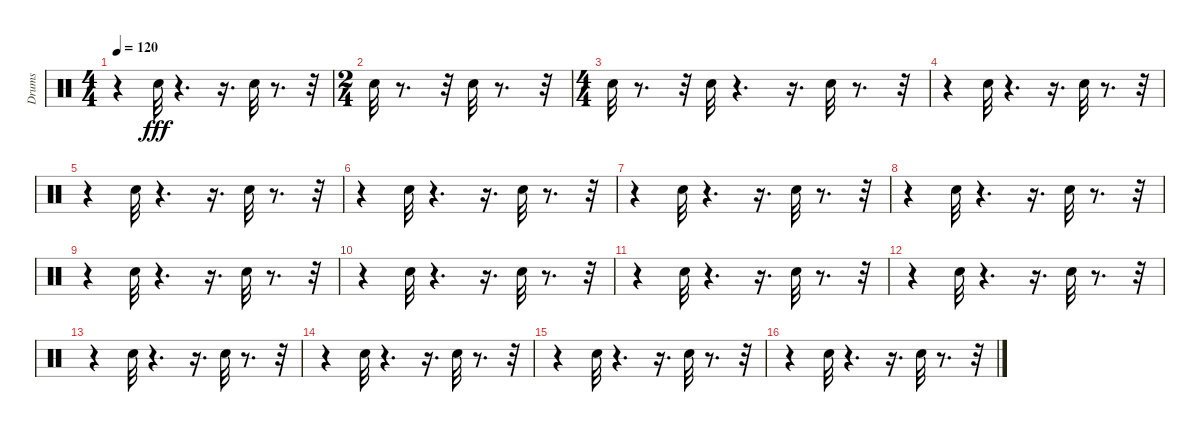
\track ("Drums" "Drums") {instrument percussion}
\staff {score}
\articulation defaults
\ts (4 4)
\tempo 120
\clef neutral
\ks c
r.4{dy fff} "Snare (hit) 2".32 r.4{d} r.16{d} "Snare (hit) 2".32 r.8{d} r.32 |
\ts (2 4)
"Snare (hit) 2".32 r.8{d} r.32 "Snare (hit) 2".32 r.8{d} r.32 |
\ts (4 4)
"Snare (hit) 2".32 r.8{d} r.32 "Snare (hit) 2".32 r.4{d} r.16{d} "Snare (hit) 2".32 r.8{d} r.32 |
r.4 "Snare (hit) 2".32 r.4{d} r.16{d} "Snare (hit) 2".32 r.8{d} r.32 |
r.4 "Snare (hit) 2".32 r.4{d} r.16{d} "Snare (hit) 2".32 r.8{d} r.32 |
r.4 "Snare (hit) 2".32 r.4{d} r.16{d} "Snare (hit) 2".32 r.8{d} r.32 |
r.4 "Snare (hit) 2".32 r.4{d} r.16{d} "Snare (hit) 2".32 r.8{d} r.32 |
r.4 "Snare (hit) 2".32 r.4{d} r.16{d} "Snare (hit) 2".32 r.8{d} r.32 |
r.4 "Snare (hit) 2".32 r.4{d} r.16{d} "Snare (hit) 2".32 r.8{d} r.32 |
r.4 "Snare (hit) 2".32 r.4{d} r.16{d} "Snare (hit) 2".32 r.8{d} r.32 |
r.4 "Snare (hit) 2".32 r.4{d} r.16{d} "Snare (hit) 2".32 r.8{d} r.32 |
r.4 "Snare (hit) 2".32 r.4{d} r.16{d} "Snare (hit) 2".32 r.8{d} r.32 |
r.4 "Snare (hit) 2".32 r.4{d} r.16{d} "Snare (hit) 2".32 r.8{d} r.32 |
r.4 "Snare (hit) 2".32 r.4{d} r.16{d} "Snare (hit) 2".32 r.8{d} r.32 |
r.4 "Snare (hit) 2".32 r.4{d} r.16{d} "Snare (hit) 2".32 r.8{d} r.32 |
r.4 "Snare (hit) 2".32 r.4{d} r.16{d} "Snare (hit) 2".32 r.8{d} r.32
